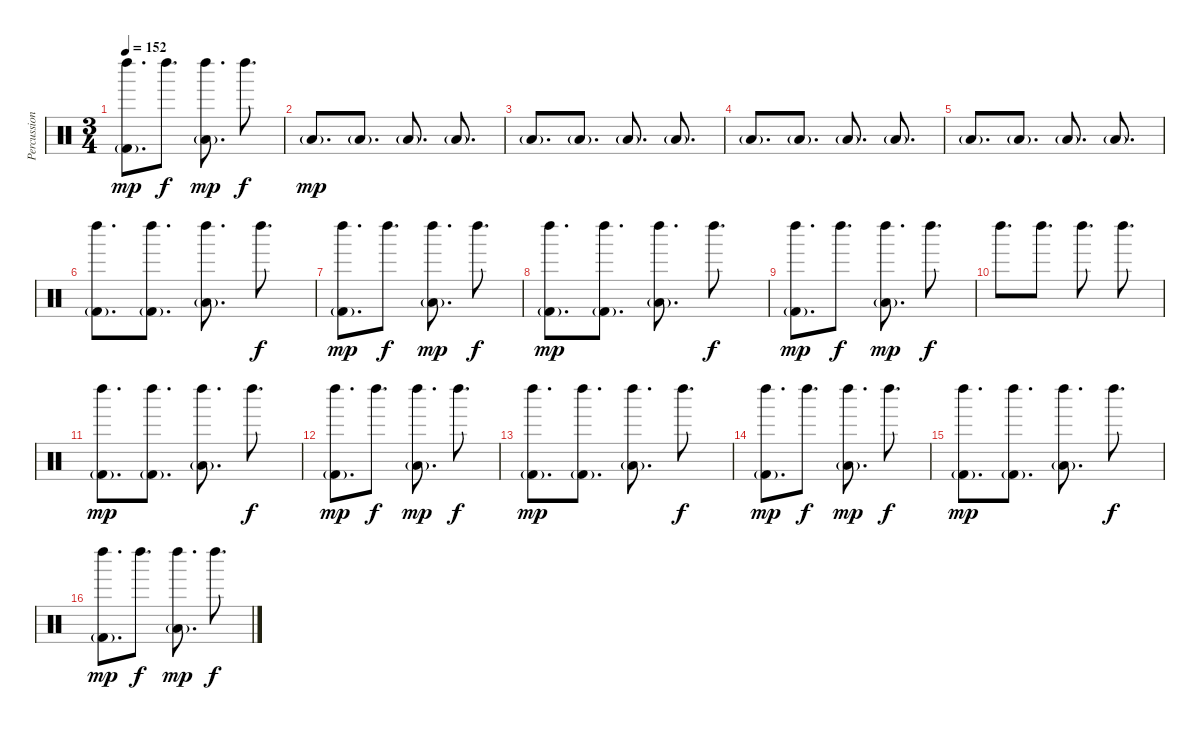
\track ("Percussion" "Percussion") {instrument percussion}
\staff {score}
\articulation defaults
\ts (3 4)
\tempo 152
\clef neutral
\ks c
("Left Maraca (hit)" "Kick (hit) 2"{g}).8{d dy mp} "Left Maraca (hit)".8{d dy f} ("Left Maraca (hit)" "Low Tom (hit)"{g}).8{d dy mp} "Left Maraca (hit)".8{d dy f} |
"Low Floor Tom (hit)"{g}.8{d dy mp} "Low Floor Tom (hit)"{g}.8{d} "Low Floor Tom (hit)"{g}.8{d} "Low Floor Tom (hit)"{g}.8{d} |
"Low Floor Tom (hit)"{g}.8{d} "Low Floor Tom (hit)"{g}.8{d} "Low Floor Tom (hit)"{g}.8{d} "Low Floor Tom (hit)"{g}.8{d} |
"Low Floor Tom (hit)"{g}.8{d} "Low Floor Tom (hit)"{g}.8{d} "Low Floor Tom (hit)"{g}.8{d} "Low Floor Tom (hit)"{g}.8{d} |
"Low Floor Tom (hit)"{g}.8{d} "Low Floor Tom (hit)"{g}.8{d} "Low Floor Tom (hit)"{g}.8{d} "Low Floor Tom (hit)"{g}.8{d} |
("Left Maraca (hit)" "Kick (hit) 2"{g}).8{d} ("Left Maraca (hit)" "Kick (hit) 2"{g}).8{d} ("Left Maraca (hit)" "Low Tom (hit)"{g}).8{d} "Left Maraca (hit)".8{d dy f} |
("Left Maraca (hit)" "Kick (hit) 2"{g}).8{d dy mp} "Left Maraca (hit)".8{d dy f} ("Left Maraca (hit)" "Low Tom (hit)"{g}).8{d dy mp} "Left Maraca (hit)".8{d dy f} |
("Left Maraca (hit)" "Kick (hit) 2"{g}).8{d dy mp} ("Left Maraca (hit)" "Kick (hit) 2"{g}).8{d} ("Left Maraca (hit)" "Low Tom (hit)"{g}).8{d} "Left Maraca (hit)".8{d dy f} |
("Left Maraca (hit)" "Kick (hit) 2"{g}).8{d dy mp} "Left Maraca (hit)".8{d dy f} ("Left Maraca (hit)" "Low Tom (hit)"{g}).8{d dy mp} "Left Maraca (hit)".8{d dy f} |
"Left Maraca (hit)".8{d} "Left Maraca (hit)".8{d} "Left Maraca (hit)".8{d} "Left Maraca (hit)".8{d} |
("Left Maraca (hit)" "Kick (hit) 2"{g}).8{d dy mp} ("Left Maraca (hit)" "Kick (hit) 2"{g}).8{d} ("Left Maraca (hit)" "Low Tom (hit)"{g}).8{d} "Left Maraca (hit)".8{d dy f} |
("Left Maraca (hit)" "Kick (hit) 2"{g}).8{d dy mp} "Left Maraca (hit)".8{d dy f} ("Left Maraca (hit)" "Low Tom (hit)"{g}).8{d dy mp} "Left Maraca (hit)".8{d dy f} |
("Left Maraca (hit)" "Kick (hit) 2"{g}).8{d dy mp} ("Left Maraca (hit)" "Kick (hit) 2"{g}).8{d} ("Left Maraca (hit)" "Low Tom (hit)"{g}).8{d} "Left Maraca (hit)".8{d dy f} |
("Left Maraca (hit)" "Kick (hit) 2"{g}).8{d dy mp} "Left Maraca (hit)".8{d dy f} ("Left Maraca (hit)" "Low Tom (hit)"{g}).8{d dy mp} "Left Maraca (hit)".8{d dy f} |
("Left Maraca (hit)" "Kick (hit) 2"{g}).8{d dy mp} ("Left Maraca (hit)" "Kick (hit) 2"{g}).8{d} ("Left Maraca (hit)" "Low Tom (hit)"{g}).8{d} "Left Maraca (hit)".8{d dy f} |
("Left Maraca (hit)" "Kick (hit) 2"{g}).8{d dy mp} "Left Maraca (hit)".8{d dy f} ("Left Maraca (hit)" "Low Tom (hit)"{g}).8{d dy mp} "Left Maraca (hit)".8{d dy f}
